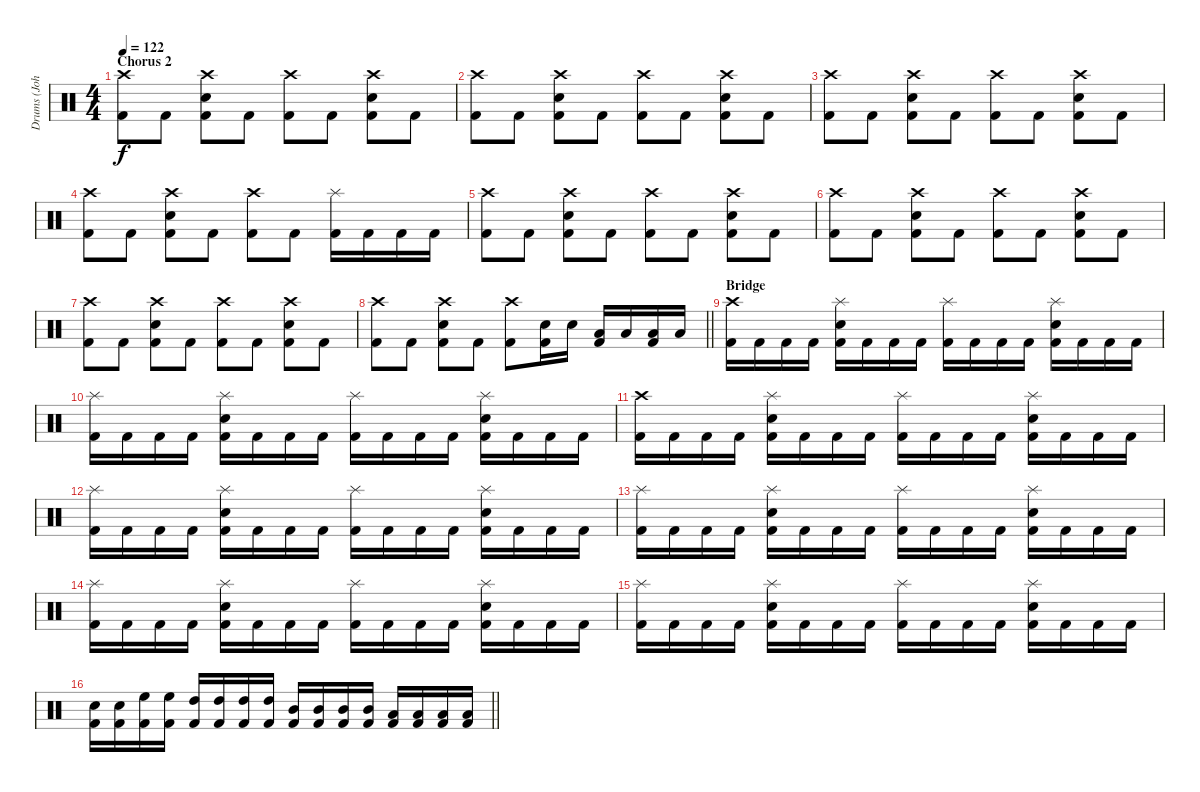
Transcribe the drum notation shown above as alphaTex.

\track ("Drums (John)" "Drums (Joh") {instrument percussion}
\staff {score}
\articulation defaults
\ts (4 4)
\section ("" "Chorus 2")
\tempo 122
\clef neutral
\ks c
("Crash high (hit)" "Kick (hit) 2").8{dy f} "Kick (hit) 2".8 ("Crash high (hit)" "Electric Snare (hit)" "Kick (hit) 2").8 "Kick (hit) 2".8 ("Crash high (hit)" "Kick (hit) 2").8 "Kick (hit) 2".8 ("Crash high (hit)" "Electric Snare (hit)" "Kick (hit) 2").8 "Kick (hit) 2".8 |
("Crash high (hit)" "Kick (hit) 2").8 "Kick (hit) 2".8 ("Crash high (hit)" "Electric Snare (hit)" "Kick (hit) 2").8 "Kick (hit) 2".8 ("Crash high (hit)" "Kick (hit) 2").8 "Kick (hit) 2".8 ("Crash high (hit)" "Electric Snare (hit)" "Kick (hit) 2").8 "Kick (hit) 2".8 |
("Crash high (hit)" "Kick (hit) 2").8 "Kick (hit) 2".8 ("Crash high (hit)" "Electric Snare (hit)" "Kick (hit) 2").8 "Kick (hit) 2".8 ("Crash high (hit)" "Kick (hit) 2").8 "Kick (hit) 2".8 ("Crash high (hit)" "Electric Snare (hit)" "Kick (hit) 2").8 "Kick (hit) 2".8 |
("Crash high (hit)" "Kick (hit) 2").8 "Kick (hit) 2".8 ("Crash high (hit)" "Electric Snare (hit)" "Kick (hit) 2").8 "Kick (hit) 2".8 ("Crash high (hit)" "Kick (hit) 2").8 "Kick (hit) 2".8 ("Splash (hit)" "Kick (hit) 2").16 "Kick (hit) 2".16 "Kick (hit) 2".16 "Kick (hit) 2".16 |
("Crash high (hit)" "Kick (hit) 2").8 "Kick (hit) 2".8 ("Crash high (hit)" "Electric Snare (hit)" "Kick (hit) 2").8 "Kick (hit) 2".8 ("Crash high (hit)" "Kick (hit) 2").8 "Kick (hit) 2".8 ("Crash high (hit)" "Electric Snare (hit)" "Kick (hit) 2").8 "Kick (hit) 2".8 |
("Crash high (hit)" "Kick (hit) 2").8 "Kick (hit) 2".8 ("Crash high (hit)" "Electric Snare (hit)" "Kick (hit) 2").8 "Kick (hit) 2".8 ("Crash high (hit)" "Kick (hit) 2").8 "Kick (hit) 2".8 ("Crash high (hit)" "Electric Snare (hit)" "Kick (hit) 2").8 "Kick (hit) 2".8 |
("Crash high (hit)" "Kick (hit) 2").8 "Kick (hit) 2".8 ("Crash high (hit)" "Electric Snare (hit)" "Kick (hit) 2").8 "Kick (hit) 2".8 ("Crash high (hit)" "Kick (hit) 2").8 "Kick (hit) 2".8 ("Crash high (hit)" "Electric Snare (hit)" "Kick (hit) 2").8 "Kick (hit) 2".8 |
\barLineRight lightlight
("Crash high (hit)" "Kick (hit) 2").8 "Kick (hit) 2".8 ("Crash high (hit)" "Electric Snare (hit)" "Kick (hit) 2").8 "Kick (hit) 2".8 ("Crash high (hit)" "Kick (hit) 2").8 ("Electric Snare (hit)" "Kick (hit) 2").16 "Electric Snare (hit)".16 ("Low Tom (hit)" "Kick (hit) 2").16 "Low Tom (hit)".16 ("Low Tom (hit)" "Kick (hit) 2").16 "Low Tom (hit)".16 |
\section ("" "Bridge")
("Crash high (hit)" "Kick (hit) 2").16 "Kick (hit) 2".16 "Kick (hit) 2".16 "Kick (hit) 2".16 ("Splash (hit)" "Electric Snare (hit)" "Kick (hit) 2").16 "Kick (hit) 2".16 "Kick (hit) 2".16 "Kick (hit) 2".16 ("Splash (hit)" "Kick (hit) 2").16 "Kick (hit) 2".16 "Kick (hit) 2".16 "Kick (hit) 2".16 ("Splash (hit)" "Electric Snare (hit)" "Kick (hit) 2").16 "Kick (hit) 2".16 "Kick (hit) 2".16 "Kick (hit) 2".16 |
("Splash (hit)" "Kick (hit) 2").16 "Kick (hit) 2".16 "Kick (hit) 2".16 "Kick (hit) 2".16 ("Splash (hit)" "Electric Snare (hit)" "Kick (hit) 2").16 "Kick (hit) 2".16 "Kick (hit) 2".16 "Kick (hit) 2".16 ("Splash (hit)" "Kick (hit) 2").16 "Kick (hit) 2".16 "Kick (hit) 2".16 "Kick (hit) 2".16 ("Splash (hit)" "Electric Snare (hit)" "Kick (hit) 2").16 "Kick (hit) 2".16 "Kick (hit) 2".16 "Kick (hit) 2".16 |
("Crash high (hit)" "Kick (hit) 2").16 "Kick (hit) 2".16 "Kick (hit) 2".16 "Kick (hit) 2".16 ("Splash (hit)" "Electric Snare (hit)" "Kick (hit) 2").16 "Kick (hit) 2".16 "Kick (hit) 2".16 "Kick (hit) 2".16 ("Splash (hit)" "Kick (hit) 2").16 "Kick (hit) 2".16 "Kick (hit) 2".16 "Kick (hit) 2".16 ("Splash (hit)" "Electric Snare (hit)" "Kick (hit) 2").16 "Kick (hit) 2".16 "Kick (hit) 2".16 "Kick (hit) 2".16 |
("Splash (hit)" "Kick (hit) 2").16 "Kick (hit) 2".16 "Kick (hit) 2".16 "Kick (hit) 2".16 ("Splash (hit)" "Electric Snare (hit)" "Kick (hit) 2").16 "Kick (hit) 2".16 "Kick (hit) 2".16 "Kick (hit) 2".16 ("Splash (hit)" "Kick (hit) 2").16 "Kick (hit) 2".16 "Kick (hit) 2".16 "Kick (hit) 2".16 ("Splash (hit)" "Electric Snare (hit)" "Kick (hit) 2").16 "Kick (hit) 2".16 "Kick (hit) 2".16 "Kick (hit) 2".16 |
("Splash (hit)" "Kick (hit) 2").16 "Kick (hit) 2".16 "Kick (hit) 2".16 "Kick (hit) 2".16 ("Splash (hit)" "Electric Snare (hit)" "Kick (hit) 2").16 "Kick (hit) 2".16 "Kick (hit) 2".16 "Kick (hit) 2".16 ("Splash (hit)" "Kick (hit) 2").16 "Kick (hit) 2".16 "Kick (hit) 2".16 "Kick (hit) 2".16 ("Splash (hit)" "Electric Snare (hit)" "Kick (hit) 2").16 "Kick (hit) 2".16 "Kick (hit) 2".16 "Kick (hit) 2".16 |
("Splash (hit)" "Kick (hit) 2").16 "Kick (hit) 2".16 "Kick (hit) 2".16 "Kick (hit) 2".16 ("Splash (hit)" "Electric Snare (hit)" "Kick (hit) 2").16 "Kick (hit) 2".16 "Kick (hit) 2".16 "Kick (hit) 2".16 ("Splash (hit)" "Kick (hit) 2").16 "Kick (hit) 2".16 "Kick (hit) 2".16 "Kick (hit) 2".16 ("Splash (hit)" "Electric Snare (hit)" "Kick (hit) 2").16 "Kick (hit) 2".16 "Kick (hit) 2".16 "Kick (hit) 2".16 |
("Splash (hit)" "Kick (hit) 2").16 "Kick (hit) 2".16 "Kick (hit) 2".16 "Kick (hit) 2".16 ("Splash (hit)" "Electric Snare (hit)" "Kick (hit) 2").16 "Kick (hit) 2".16 "Kick (hit) 2".16 "Kick (hit) 2".16 ("Splash (hit)" "Kick (hit) 2").16 "Kick (hit) 2".16 "Kick (hit) 2".16 "Kick (hit) 2".16 ("Splash (hit)" "Electric Snare (hit)" "Kick (hit) 2").16 "Kick (hit) 2".16 "Kick (hit) 2".16 "Kick (hit) 2".16 |
\barLineRight lightlight
("Electric Snare (hit)" "Kick (hit) 2").16 ("Electric Snare (hit)" "Kick (hit) 2").16 ("High Floor Tom (hit)" "Kick (hit) 2").16 ("High Floor Tom (hit)" "Kick (hit) 2").16 ("High Tom (hit)" "Kick (hit) 2").16 ("High Tom (hit)" "Kick (hit) 2").16 ("High Tom (hit)" "Kick (hit) 2").16 ("High Tom (hit)" "Kick (hit) 2").16 ("Mid Tom (hit)" "Kick (hit) 2").16 ("Mid Tom (hit)" "Kick (hit) 2").16 ("Mid Tom (hit)" "Kick (hit) 2").16 ("Mid Tom (hit)" "Kick (hit) 2").16 ("Low Tom (hit)" "Kick (hit) 2").16 ("Low Tom (hit)" "Kick (hit) 2").16 ("Low Tom (hit)" "Kick (hit) 2").16 ("Low Tom (hit)" "Kick (hit) 2").16
